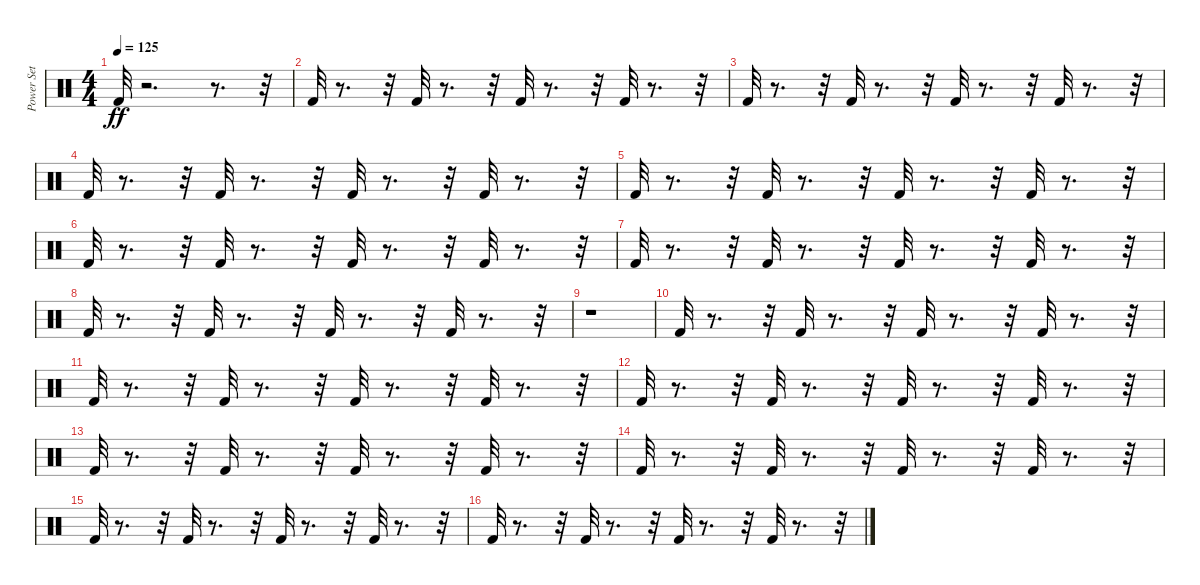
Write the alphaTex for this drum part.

\track ("Power Set" "Power Set") {instrument percussion}
\staff {score}
\articulation defaults
\ts (4 4)
\tempo 125
\clef neutral
\ks c "Kick (hit) 2".32{dy ff}
r.2{d} r.8{d} r.32 |
"Kick (hit) 2".32 r.8{d} r.32 "Kick (hit) 2".32 r.8{d} r.32 "Kick (hit) 2".32 r.8{d} r.32 "Kick (hit) 2".32 r.8{d} r.32 |
"Kick (hit) 2".32 r.8{d} r.32 "Kick (hit) 2".32 r.8{d} r.32 "Kick (hit) 2".32 r.8{d} r.32 "Kick (hit) 2".32 r.8{d} r.32 |
"Kick (hit) 2".32 r.8{d} r.32 "Kick (hit) 2".32 r.8{d} r.32 "Kick (hit) 2".32 r.8{d} r.32 "Kick (hit) 2".32 r.8{d} r.32 |
"Kick (hit) 2".32 r.8{d} r.32 "Kick (hit) 2".32 r.8{d} r.32 "Kick (hit) 2".32 r.8{d} r.32 "Kick (hit) 2".32 r.8{d} r.32 |
"Kick (hit) 2".32 r.8{d} r.32 "Kick (hit) 2".32 r.8{d} r.32 "Kick (hit) 2".32 r.8{d} r.32 "Kick (hit) 2".32 r.8{d} r.32 |
"Kick (hit) 2".32 r.8{d} r.32 "Kick (hit) 2".32 r.8{d} r.32 "Kick (hit) 2".32 r.8{d} r.32 "Kick (hit) 2".32 r.8{d} r.32 |
"Kick (hit) 2".32 r.8{d} r.32 "Kick (hit) 2".32 r.8{d} r.32 "Kick (hit) 2".32 r.8{d} r.32 "Kick (hit) 2".32 r.8{d} r.32 |
r.1 |
"Kick (hit) 2".32 r.8{d} r.32 "Kick (hit) 2".32 r.8{d} r.32 "Kick (hit) 2".32 r.8{d} r.32 "Kick (hit) 2".32 r.8{d} r.32 |
"Kick (hit) 2".32 r.8{d} r.32 "Kick (hit) 2".32 r.8{d} r.32 "Kick (hit) 2".32 r.8{d} r.32 "Kick (hit) 2".32 r.8{d} r.32 |
"Kick (hit) 2".32 r.8{d} r.32 "Kick (hit) 2".32 r.8{d} r.32 "Kick (hit) 2".32 r.8{d} r.32 "Kick (hit) 2".32 r.8{d} r.32 |
"Kick (hit) 2".32 r.8{d} r.32 "Kick (hit) 2".32 r.8{d} r.32 "Kick (hit) 2".32 r.8{d} r.32 "Kick (hit) 2".32 r.8{d} r.32 |
"Kick (hit) 2".32 r.8{d} r.32 "Kick (hit) 2".32 r.8{d} r.32 "Kick (hit) 2".32 r.8{d} r.32 "Kick (hit) 2".32 r.8{d} r.32 |
"Kick (hit) 2".32 r.8{d} r.32 "Kick (hit) 2".32 r.8{d} r.32 "Kick (hit) 2".32 r.8{d} r.32 "Kick (hit) 2".32 r.8{d} r.32 |
"Kick (hit) 2".32 r.8{d} r.32 "Kick (hit) 2".32 r.8{d} r.32 "Kick (hit) 2".32 r.8{d} r.32 "Kick (hit) 2".32 r.8{d} r.32
